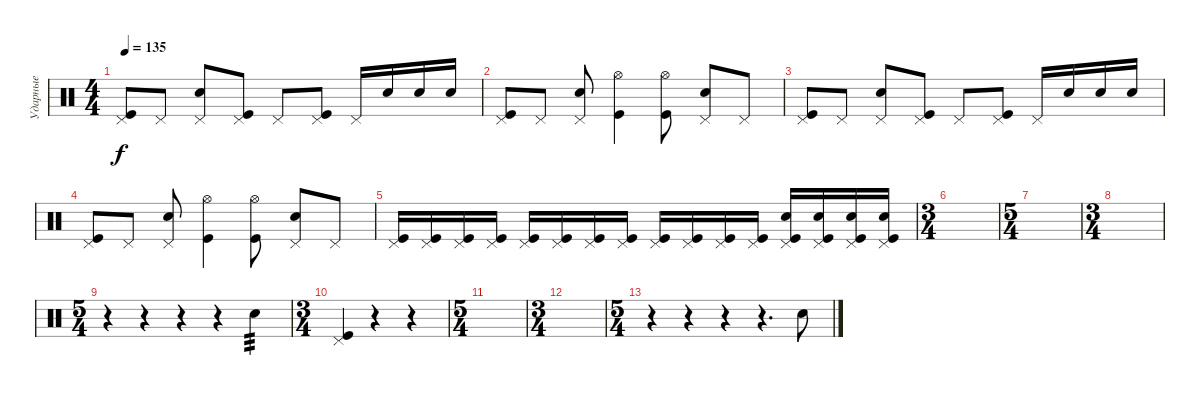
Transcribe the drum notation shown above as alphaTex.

\track ("Ударные" "Ударные") {instrument percussion}
\staff {score}
\articulation defaults
\ts (4 4)
\tempo 135
\clef neutral
\ks c
("Kick (hit)" "Pedal Hi-Hat (hit)").8{dy f} "Pedal Hi-Hat (hit)".8 ("Pedal Hi-Hat (hit)" "Electric Snare (hit)").8 ("Kick (hit)" "Pedal Hi-Hat (hit)").8 "Pedal Hi-Hat (hit)".8 ("Kick (hit)" "Pedal Hi-Hat (hit)").8 "Pedal Hi-Hat (hit)".16 "Electric Snare (hit)".16 "Electric Snare (hit)".16 "Electric Snare (hit)".16 |
("Kick (hit)" "Pedal Hi-Hat (hit)").8 "Pedal Hi-Hat (hit)".8 ("Pedal Hi-Hat (hit)" "Electric Snare (hit)").8 ("Kick (hit)" "Hi-Hat (open)").4 ("Kick (hit)" "Hi-Hat (open)").8 ("Pedal Hi-Hat (hit)" "Electric Snare (hit)").8 "Pedal Hi-Hat (hit)".8 |
("Kick (hit)" "Pedal Hi-Hat (hit)").8 "Pedal Hi-Hat (hit)".8 ("Pedal Hi-Hat (hit)" "Electric Snare (hit)").8 ("Kick (hit)" "Pedal Hi-Hat (hit)").8 "Pedal Hi-Hat (hit)".8 ("Kick (hit)" "Pedal Hi-Hat (hit)").8 "Pedal Hi-Hat (hit)".16 "Electric Snare (hit)".16 "Electric Snare (hit)".16 "Electric Snare (hit)".16 |
("Kick (hit)" "Pedal Hi-Hat (hit)").8 "Pedal Hi-Hat (hit)".8 ("Pedal Hi-Hat (hit)" "Electric Snare (hit)").8 ("Kick (hit)" "Hi-Hat (open)").4 ("Kick (hit)" "Hi-Hat (open)").8 ("Pedal Hi-Hat (hit)" "Electric Snare (hit)").8 "Pedal Hi-Hat (hit)".8 |
("Kick (hit)" "Pedal Hi-Hat (hit)").16 ("Kick (hit)" "Pedal Hi-Hat (hit)").16 ("Kick (hit)" "Pedal Hi-Hat (hit)").16 ("Kick (hit)" "Pedal Hi-Hat (hit)").16 ("Kick (hit)" "Pedal Hi-Hat (hit)").16 ("Kick (hit)" "Pedal Hi-Hat (hit)").16 ("Kick (hit)" "Pedal Hi-Hat (hit)").16 ("Kick (hit)" "Pedal Hi-Hat (hit)").16 ("Kick (hit)" "Pedal Hi-Hat (hit)").16 ("Kick (hit)" "Pedal Hi-Hat (hit)").16 ("Kick (hit)" "Pedal Hi-Hat (hit)").16 ("Kick (hit)" "Pedal Hi-Hat (hit)").16 ("Kick (hit)" "Pedal Hi-Hat (hit)" "Electric Snare (hit)").16 ("Kick (hit)" "Pedal Hi-Hat (hit)" "Electric Snare (hit)").16 ("Kick (hit)" "Pedal Hi-Hat (hit)" "Electric Snare (hit)").16 ("Kick (hit)" "Pedal Hi-Hat (hit)" "Electric Snare (hit)").16 |
\ts (3 4)
|
\ts (5 4)
|
\ts (3 4)
|
\ts (5 4)
r.4 r.4 r.4 r.4 "Electric Snare (hit)".4{tp 3} |
\ts (3 4)
("Kick (hit)" "Pedal Hi-Hat (hit)").4 r.4 r.4 |
\ts (5 4)
|
\ts (3 4)
|
\ts (5 4)
r.4 r.4 r.4 r.4{d} "Electric Snare (hit)".8
